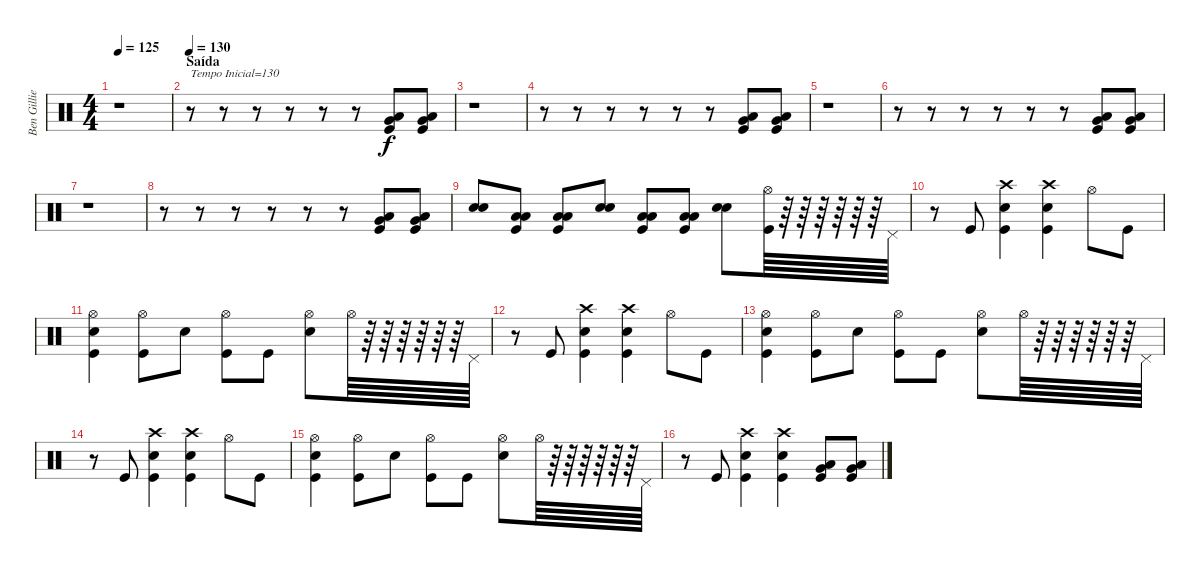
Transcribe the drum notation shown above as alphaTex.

\track ("Ben Gillies" "Ben Gillie") {instrument percussion}
\staff {score}
\articulation defaults
\ts (4 4)
\tempo 125
\clef neutral
\ks c
r.1{dy f} |
\section ("" "Saída")
\tempo 130
r.8{txt "Tempo Inicial=130"} r.8 r.8 r.8 r.8 r.8 ("Kick (hit)" "Low Tom (hit)" "Very Low Tom (hit)").8 ("Kick (hit)" "Low Tom (hit)" "Very Low Tom (hit)").8 |
r.1 |
r.8 r.8 r.8 r.8 r.8 r.8 ("Kick (hit)" "Low Tom (hit)" "Very Low Tom (hit)").8 ("Kick (hit)" "Low Tom (hit)" "Very Low Tom (hit)").8 |
r.1 |
r.8 r.8 r.8 r.8 r.8 r.8 ("Kick (hit)" "Low Tom (hit)" "Very Low Tom (hit)").8 ("Kick (hit)" "Low Tom (hit)" "Very Low Tom (hit)").8 |
r.1 |
r.8 r.8 r.8 r.8 r.8 r.8 ("Kick (hit)" "Low Tom (hit)" "Very Low Tom (hit)").8 ("Kick (hit)" "Low Tom (hit)" "Very Low Tom (hit)").8 |
("Snare (hit) 2" "Snare (hit) 2").8{bu 60} ("Kick (hit)" "Low Floor Tom (hit)" "Low Floor Tom (hit)").8 ("Kick (hit)" "Low Floor Tom (hit)" "Low Floor Tom (hit)").8 ("Snare (hit) 2" "Snare (hit) 2").8{bu 60} ("Kick (hit)" "Low Floor Tom (hit)" "Low Floor Tom (hit)").8 ("Kick (hit)" "Low Floor Tom (hit)" "Low Floor Tom (hit)").8 ("Snare (hit) 2" "Snare (hit) 2").8{bu 60} ("Kick (hit)" "Hi-Hat (open)").64 r.64 r.64 r.64 r.64 r.64 r.64 "Pedal Hi-Hat (hit)".64 |
r.8 "Kick (hit)".8 ("Kick (hit)" "Snare (hit) 2" "Crash high (hit)").4 ("Kick (hit)" "Snare (hit) 2" "Crash high (hit)").4 "Hi-Hat (open)".8 "Kick (hit)".8 |
("Kick (hit)" "Snare (hit) 2" "Hi-Hat (open)").4 ("Kick (hit)" "Hi-Hat (open)").8 "Snare (hit) 2".8 ("Kick (hit)" "Hi-Hat (open)").8 "Kick (hit)".8 ("Snare (hit) 2" "Hi-Hat (open)").8 "Hi-Hat (open)".64 r.64 r.64 r.64 r.64 r.64 r.64 "Pedal Hi-Hat (hit)".64 |
r.8 "Kick (hit)".8 ("Kick (hit)" "Snare (hit) 2" "Crash high (hit)").4 ("Kick (hit)" "Snare (hit) 2" "Crash high (hit)").4 "Hi-Hat (open)".8 "Kick (hit)".8 |
("Kick (hit)" "Snare (hit) 2" "Hi-Hat (open)").4 ("Kick (hit)" "Hi-Hat (open)").8 "Snare (hit) 2".8 ("Kick (hit)" "Hi-Hat (open)").8 "Kick (hit)".8 ("Snare (hit) 2" "Hi-Hat (open)").8 "Hi-Hat (open)".64 r.64 r.64 r.64 r.64 r.64 r.64 "Pedal Hi-Hat (hit)".64 |
r.8 "Kick (hit)".8 ("Kick (hit)" "Snare (hit) 2" "Crash high (hit)").4 ("Kick (hit)" "Snare (hit) 2" "Crash high (hit)").4 "Hi-Hat (open)".8 "Kick (hit)".8 |
("Kick (hit)" "Snare (hit) 2" "Hi-Hat (open)").4 ("Kick (hit)" "Hi-Hat (open)").8 "Snare (hit) 2".8 ("Kick (hit)" "Hi-Hat (open)").8 "Kick (hit)".8 ("Snare (hit) 2" "Hi-Hat (open)").8 "Hi-Hat (open)".64 r.64 r.64 r.64 r.64 r.64 r.64 "Pedal Hi-Hat (hit)".64 |
r.8 "Kick (hit)".8 ("Kick (hit)" "Snare (hit) 2" "Crash high (hit)").4 ("Kick (hit)" "Snare (hit) 2" "Crash high (hit)").4 ("Kick (hit)" "Low Tom (hit)" "Very Low Tom (hit)").8 ("Kick (hit)" "Low Tom (hit)" "Very Low Tom (hit)").8
